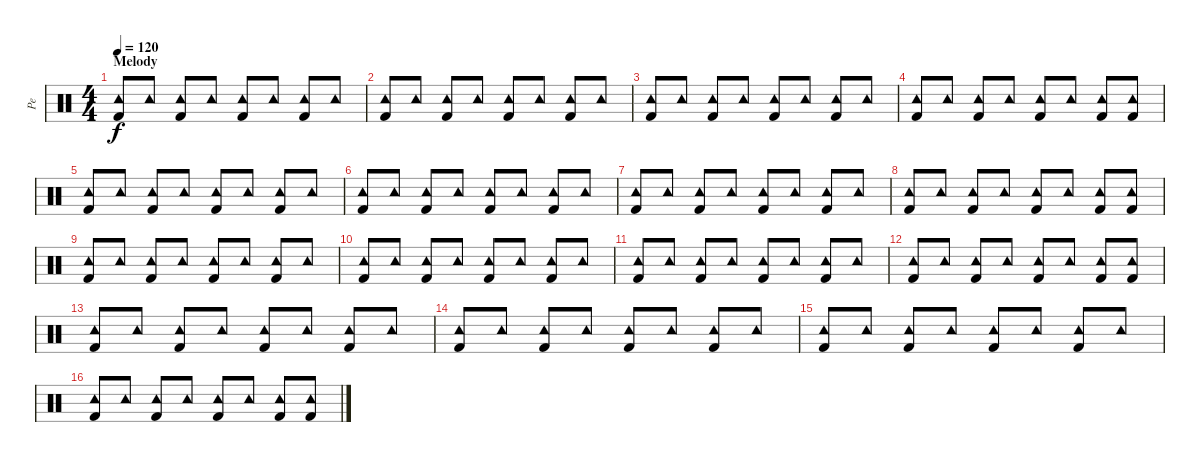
\track ("Pe" "Pe") {instrument percussion}
\staff {score}
\articulation defaults
\ts (4 4)
\section ("" "Melody")
\tempo 120
\clef neutral
\ks c
("Kick (hit) 2" "Tambourine (hit)").8{dy f} "Tambourine (hit)".8 ("Kick (hit) 2" "Tambourine (hit)").8 "Tambourine (hit)".8 ("Kick (hit) 2" "Tambourine (hit)").8 "Tambourine (hit)".8 ("Kick (hit) 2" "Tambourine (hit)").8 "Tambourine (hit)".8 |
("Kick (hit) 2" "Tambourine (hit)").8 "Tambourine (hit)".8 ("Kick (hit) 2" "Tambourine (hit)").8 "Tambourine (hit)".8 ("Kick (hit) 2" "Tambourine (hit)").8 "Tambourine (hit)".8 ("Kick (hit) 2" "Tambourine (hit)").8 "Tambourine (hit)".8 |
("Kick (hit) 2" "Tambourine (hit)").8 "Tambourine (hit)".8 ("Kick (hit) 2" "Tambourine (hit)").8 "Tambourine (hit)".8 ("Kick (hit) 2" "Tambourine (hit)").8 "Tambourine (hit)".8 ("Kick (hit) 2" "Tambourine (hit)").8 "Tambourine (hit)".8 |
("Kick (hit) 2" "Tambourine (hit)").8 "Tambourine (hit)".8 ("Kick (hit) 2" "Tambourine (hit)").8 "Tambourine (hit)".8 ("Kick (hit) 2" "Tambourine (hit)").8 "Tambourine (hit)".8 ("Kick (hit) 2" "Tambourine (hit)").8 ("Kick (hit) 2" "Tambourine (hit)").8 |
("Kick (hit) 2" "Tambourine (hit)").8 "Tambourine (hit)".8 ("Kick (hit) 2" "Tambourine (hit)").8 "Tambourine (hit)".8 ("Kick (hit) 2" "Tambourine (hit)").8 "Tambourine (hit)".8 ("Kick (hit) 2" "Tambourine (hit)").8 "Tambourine (hit)".8 |
("Kick (hit) 2" "Tambourine (hit)").8 "Tambourine (hit)".8 ("Kick (hit) 2" "Tambourine (hit)").8 "Tambourine (hit)".8 ("Kick (hit) 2" "Tambourine (hit)").8 "Tambourine (hit)".8 ("Kick (hit) 2" "Tambourine (hit)").8 "Tambourine (hit)".8 |
("Kick (hit) 2" "Tambourine (hit)").8 "Tambourine (hit)".8 ("Kick (hit) 2" "Tambourine (hit)").8 "Tambourine (hit)".8 ("Kick (hit) 2" "Tambourine (hit)").8 "Tambourine (hit)".8 ("Kick (hit) 2" "Tambourine (hit)").8 "Tambourine (hit)".8 |
("Kick (hit) 2" "Tambourine (hit)").8 "Tambourine (hit)".8 ("Kick (hit) 2" "Tambourine (hit)").8 "Tambourine (hit)".8 ("Kick (hit) 2" "Tambourine (hit)").8 "Tambourine (hit)".8 ("Kick (hit) 2" "Tambourine (hit)").8 ("Kick (hit) 2" "Tambourine (hit)").8 |
("Kick (hit) 2" "Tambourine (hit)").8 "Tambourine (hit)".8 ("Kick (hit) 2" "Tambourine (hit)").8 "Tambourine (hit)".8 ("Kick (hit) 2" "Tambourine (hit)").8 "Tambourine (hit)".8 ("Kick (hit) 2" "Tambourine (hit)").8 "Tambourine (hit)".8 |
("Kick (hit) 2" "Tambourine (hit)").8 "Tambourine (hit)".8 ("Kick (hit) 2" "Tambourine (hit)").8 "Tambourine (hit)".8 ("Kick (hit) 2" "Tambourine (hit)").8 "Tambourine (hit)".8 ("Kick (hit) 2" "Tambourine (hit)").8 "Tambourine (hit)".8 |
("Kick (hit) 2" "Tambourine (hit)").8 "Tambourine (hit)".8 ("Kick (hit) 2" "Tambourine (hit)").8 "Tambourine (hit)".8 ("Kick (hit) 2" "Tambourine (hit)").8 "Tambourine (hit)".8 ("Kick (hit) 2" "Tambourine (hit)").8 "Tambourine (hit)".8 |
("Kick (hit) 2" "Tambourine (hit)").8 "Tambourine (hit)".8 ("Kick (hit) 2" "Tambourine (hit)").8 "Tambourine (hit)".8 ("Kick (hit) 2" "Tambourine (hit)").8 "Tambourine (hit)".8 ("Kick (hit) 2" "Tambourine (hit)").8 ("Kick (hit) 2" "Tambourine (hit)").8 |
("Kick (hit) 2" "Tambourine (hit)").8 "Tambourine (hit)".8 ("Kick (hit) 2" "Tambourine (hit)").8 "Tambourine (hit)".8 ("Kick (hit) 2" "Tambourine (hit)").8 "Tambourine (hit)".8 ("Kick (hit) 2" "Tambourine (hit)").8 "Tambourine (hit)".8 |
("Kick (hit) 2" "Tambourine (hit)").8 "Tambourine (hit)".8 ("Kick (hit) 2" "Tambourine (hit)").8 "Tambourine (hit)".8 ("Kick (hit) 2" "Tambourine (hit)").8 "Tambourine (hit)".8 ("Kick (hit) 2" "Tambourine (hit)").8 "Tambourine (hit)".8 |
("Kick (hit) 2" "Tambourine (hit)").8 "Tambourine (hit)".8 ("Kick (hit) 2" "Tambourine (hit)").8 "Tambourine (hit)".8 ("Kick (hit) 2" "Tambourine (hit)").8 "Tambourine (hit)".8 ("Kick (hit) 2" "Tambourine (hit)").8 "Tambourine (hit)".8 |
("Kick (hit) 2" "Tambourine (hit)").8 "Tambourine (hit)".8 ("Kick (hit) 2" "Tambourine (hit)").8 "Tambourine (hit)".8 ("Kick (hit) 2" "Tambourine (hit)").8 "Tambourine (hit)".8 ("Kick (hit) 2" "Tambourine (hit)").8 ("Kick (hit) 2" "Tambourine (hit)").8
